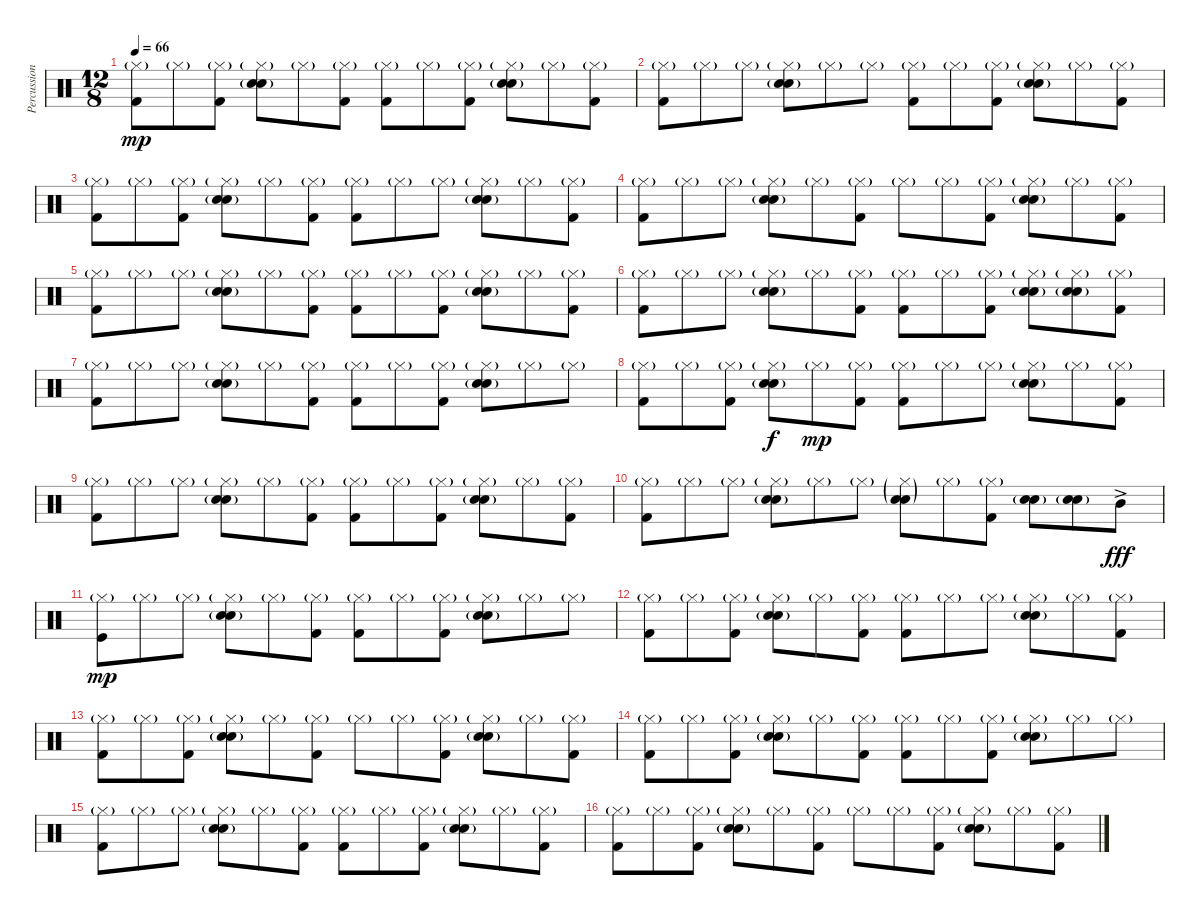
\track ("Percussion" "Percussion") {instrument percussion}
\staff {score}
\articulation defaults
\ts (12 8)
\tempo 66
\clef neutral
\ks c
("Hi-Hat (closed)"{g} "Kick (hit) 2").8{dy mp} "Hi-Hat (closed)"{g}.8 ("Hi-Hat (closed)"{g} "Kick (hit) 2").8 ("Hi-Hat (closed)"{g} "Snare (hit) 2" "Electric Snare (hit)"{g}).8 "Hi-Hat (closed)"{g}.8 ("Hi-Hat (closed)"{g} "Kick (hit) 2").8 ("Hi-Hat (closed)"{g} "Kick (hit) 2").8 "Hi-Hat (closed)"{g}.8 ("Hi-Hat (closed)"{g} "Kick (hit) 2").8 ("Hi-Hat (closed)"{g} "Snare (hit) 2" "Electric Snare (hit)"{g}).8 "Hi-Hat (closed)"{g}.8 ("Hi-Hat (closed)"{g} "Kick (hit) 2").8 |
("Hi-Hat (closed)"{g} "Kick (hit) 2").8 "Hi-Hat (closed)"{g}.8 "Hi-Hat (closed)"{g}.8 ("Hi-Hat (closed)"{g} "Snare (hit) 2" "Electric Snare (hit)"{g}).8 "Hi-Hat (closed)"{g}.8 "Hi-Hat (closed)"{g}.8 ("Hi-Hat (closed)"{g} "Kick (hit) 2").8 "Hi-Hat (closed)"{g}.8 ("Hi-Hat (closed)"{g} "Kick (hit) 2").8 ("Hi-Hat (closed)"{g} "Snare (hit) 2" "Electric Snare (hit)"{g}).8 "Hi-Hat (closed)"{g}.8 ("Hi-Hat (closed)"{g} "Kick (hit) 2").8 |
("Hi-Hat (closed)"{g} "Kick (hit) 2").8 "Hi-Hat (closed)"{g}.8 ("Hi-Hat (closed)"{g} "Kick (hit) 2").8 ("Hi-Hat (closed)"{g} "Snare (hit) 2" "Electric Snare (hit)"{g}).8 "Hi-Hat (closed)"{g}.8 ("Hi-Hat (closed)"{g} "Kick (hit) 2").8 ("Hi-Hat (closed)"{g} "Kick (hit) 2").8 "Hi-Hat (closed)"{g}.8 "Hi-Hat (closed)"{g}.8 ("Hi-Hat (closed)"{g} "Snare (hit) 2" "Electric Snare (hit)"{g}).8 "Hi-Hat (closed)"{g}.8 ("Hi-Hat (closed)"{g} "Kick (hit) 2").8 |
("Hi-Hat (closed)"{g} "Kick (hit) 2").8 "Hi-Hat (closed)"{g}.8 "Hi-Hat (closed)"{g}.8 ("Hi-Hat (closed)"{g} "Snare (hit) 2" "Electric Snare (hit)"{g}).8 "Hi-Hat (closed)"{g}.8 ("Hi-Hat (closed)"{g} "Kick (hit) 2").8 "Hi-Hat (closed)"{g}.8 "Hi-Hat (closed)"{g}.8 ("Hi-Hat (closed)"{g} "Kick (hit) 2").8 ("Hi-Hat (closed)"{g} "Snare (hit) 2" "Electric Snare (hit)"{g}).8 "Hi-Hat (closed)"{g}.8 ("Hi-Hat (closed)"{g} "Kick (hit) 2").8 |
("Hi-Hat (closed)"{g} "Kick (hit) 2").8 "Hi-Hat (closed)"{g}.8 "Hi-Hat (closed)"{g}.8 ("Hi-Hat (closed)"{g} "Snare (hit) 2" "Electric Snare (hit)"{g}).8 "Hi-Hat (closed)"{g}.8 ("Hi-Hat (closed)"{g} "Kick (hit) 2").8 ("Hi-Hat (closed)"{g} "Kick (hit) 2").8 "Hi-Hat (closed)"{g}.8 ("Hi-Hat (closed)"{g} "Kick (hit) 2").8 ("Hi-Hat (closed)"{g} "Snare (hit) 2" "Electric Snare (hit)"{g}).8 "Hi-Hat (closed)"{g}.8 ("Hi-Hat (closed)"{g} "Kick (hit) 2").8 |
("Hi-Hat (closed)"{g} "Kick (hit) 2").8 "Hi-Hat (closed)"{g}.8 "Hi-Hat (closed)"{g}.8 ("Hi-Hat (closed)"{g} "Snare (hit) 2" "Electric Snare (hit)"{g}).8 "Hi-Hat (closed)"{g}.8 ("Hi-Hat (closed)"{g} "Kick (hit) 2").8 ("Hi-Hat (closed)"{g} "Kick (hit) 2").8 "Hi-Hat (closed)"{g}.8 ("Hi-Hat (closed)"{g} "Kick (hit) 2").8 ("Hi-Hat (closed)"{g} "Snare (hit) 2" "Electric Snare (hit)"{g}).8 ("Hi-Hat (closed)"{g} "Snare (hit) 2" "Electric Snare (hit)"{g}).8 ("Hi-Hat (closed)"{g} "Kick (hit) 2").8 |
("Hi-Hat (closed)"{g} "Kick (hit) 2").8 "Hi-Hat (closed)"{g}.8 "Hi-Hat (closed)"{g}.8 ("Hi-Hat (closed)"{g} "Snare (hit) 2" "Electric Snare (hit)"{g}).8 "Hi-Hat (closed)"{g}.8 ("Hi-Hat (closed)"{g} "Kick (hit) 2").8 ("Hi-Hat (closed)"{g} "Kick (hit) 2").8 "Hi-Hat (closed)"{g}.8 ("Hi-Hat (closed)"{g} "Kick (hit) 2").8 ("Hi-Hat (closed)"{g} "Snare (hit) 2" "Electric Snare (hit)"{g}).8 "Hi-Hat (closed)"{g}.8 "Hi-Hat (closed)"{g}.8 |
("Hi-Hat (closed)"{g} "Kick (hit) 2").8 "Hi-Hat (closed)"{g}.8 ("Hi-Hat (closed)"{g} "Kick (hit) 2").8 ("Hi-Hat (closed)"{g} "Snare (hit) 2" "Electric Snare (hit)"{g}).8{dy f} "Hi-Hat (closed)"{g}.8{dy mp} ("Hi-Hat (closed)"{g} "Kick (hit) 2").8 ("Hi-Hat (closed)"{g} "Kick (hit) 2").8 "Hi-Hat (closed)"{g}.8 "Hi-Hat (closed)"{g}.8 ("Hi-Hat (closed)"{g} "Snare (hit) 2" "Electric Snare (hit)"{g}).8 "Hi-Hat (closed)"{g}.8 ("Hi-Hat (closed)"{g} "Kick (hit) 2").8 |
("Hi-Hat (closed)"{g} "Kick (hit) 2").8 "Hi-Hat (closed)"{g}.8 "Hi-Hat (closed)"{g}.8 ("Hi-Hat (closed)"{g} "Snare (hit) 2" "Electric Snare (hit)"{g}).8 "Hi-Hat (closed)"{g}.8 ("Hi-Hat (closed)"{g} "Kick (hit) 2").8 ("Hi-Hat (closed)"{g} "Kick (hit) 2").8 "Hi-Hat (closed)"{g}.8 ("Hi-Hat (closed)"{g} "Kick (hit) 2").8 ("Hi-Hat (closed)"{g} "Snare (hit) 2" "Electric Snare (hit)"{g}).8 "Hi-Hat (closed)"{g}.8 ("Hi-Hat (closed)"{g} "Kick (hit) 2").8 |
("Hi-Hat (closed)"{g} "Kick (hit) 2").8 "Hi-Hat (closed)"{g}.8 "Hi-Hat (closed)"{g}.8 ("Hi-Hat (closed)"{g} "Snare (hit) 2" "Electric Snare (hit)"{g}).8 "Hi-Hat (closed)"{g}.8 "Hi-Hat (closed)"{g}.8 ("Hi-Hat (closed)"{g} "Snare (hit) 2"{g} "Electric Snare (hit)"{g}).8 "Hi-Hat (closed)"{g}.8 ("Hi-Hat (closed)"{g} "Kick (hit) 2").8 ("Snare (hit) 2" "Electric Snare (hit)"{g}).8 ("Snare (hit) 2" "Electric Snare (hit)"{g}).8 "Mid Tom (hit)"{ac}.8{dy fff} |
("Hi-Hat (closed)"{g} "Kick (hit)").8{dy mp} "Hi-Hat (closed)"{g}.8 "Hi-Hat (closed)"{g}.8 ("Hi-Hat (closed)"{g} "Snare (hit) 2" "Electric Snare (hit)"{g}).8 "Hi-Hat (closed)"{g}.8 ("Hi-Hat (closed)"{g} "Kick (hit) 2").8 ("Hi-Hat (closed)"{g} "Kick (hit) 2").8 "Hi-Hat (closed)"{g}.8 ("Hi-Hat (closed)"{g} "Kick (hit) 2").8 ("Hi-Hat (closed)"{g} "Snare (hit) 2" "Electric Snare (hit)"{g}).8 "Hi-Hat (closed)"{g}.8 "Hi-Hat (closed)"{g}.8 |
("Hi-Hat (closed)"{g} "Kick (hit) 2").8 "Hi-Hat (closed)"{g}.8 ("Hi-Hat (closed)"{g} "Kick (hit) 2").8 ("Hi-Hat (closed)"{g} "Snare (hit) 2" "Electric Snare (hit)"{g}).8 "Hi-Hat (closed)"{g}.8 ("Hi-Hat (closed)"{g} "Kick (hit) 2").8 ("Hi-Hat (closed)"{g} "Kick (hit) 2").8 "Hi-Hat (closed)"{g}.8 "Hi-Hat (closed)"{g}.8 ("Hi-Hat (closed)"{g} "Snare (hit) 2" "Electric Snare (hit)"{g}).8 "Hi-Hat (closed)"{g}.8 ("Hi-Hat (closed)"{g} "Kick (hit) 2").8 |
("Hi-Hat (closed)"{g} "Kick (hit) 2").8 "Hi-Hat (closed)"{g}.8 ("Hi-Hat (closed)"{g} "Kick (hit) 2").8 ("Hi-Hat (closed)"{g} "Snare (hit) 2" "Electric Snare (hit)"{g}).8 "Hi-Hat (closed)"{g}.8 ("Hi-Hat (closed)"{g} "Kick (hit) 2").8 "Hi-Hat (closed)"{g}.8 "Hi-Hat (closed)"{g}.8 ("Hi-Hat (closed)"{g} "Kick (hit) 2").8 ("Hi-Hat (closed)"{g} "Snare (hit) 2" "Electric Snare (hit)"{g}).8 "Hi-Hat (closed)"{g}.8 ("Hi-Hat (closed)"{g} "Kick (hit) 2").8 |
("Hi-Hat (closed)"{g} "Kick (hit) 2").8 "Hi-Hat (closed)"{g}.8 ("Hi-Hat (closed)"{g} "Kick (hit) 2").8 ("Hi-Hat (closed)"{g} "Snare (hit) 2" "Electric Snare (hit)"{g}).8 "Hi-Hat (closed)"{g}.8 ("Hi-Hat (closed)"{g} "Kick (hit) 2").8 ("Hi-Hat (closed)"{g} "Kick (hit) 2").8 "Hi-Hat (closed)"{g}.8 ("Hi-Hat (closed)"{g} "Kick (hit) 2").8 ("Hi-Hat (closed)"{g} "Snare (hit) 2" "Electric Snare (hit)"{g}).8 "Hi-Hat (closed)"{g}.8 "Hi-Hat (closed)"{g}.8 |
("Hi-Hat (closed)"{g} "Kick (hit) 2").8 "Hi-Hat (closed)"{g}.8 "Hi-Hat (closed)"{g}.8 ("Hi-Hat (closed)"{g} "Snare (hit) 2" "Electric Snare (hit)"{g}).8 "Hi-Hat (closed)"{g}.8 ("Hi-Hat (closed)"{g} "Kick (hit) 2").8 ("Hi-Hat (closed)"{g} "Kick (hit) 2").8 "Hi-Hat (closed)"{g}.8 ("Hi-Hat (closed)"{g} "Kick (hit) 2").8 ("Hi-Hat (closed)"{g} "Snare (hit) 2" "Electric Snare (hit)"{g}).8 "Hi-Hat (closed)"{g}.8 ("Hi-Hat (closed)"{g} "Kick (hit) 2").8 |
("Hi-Hat (closed)"{g} "Kick (hit) 2").8 "Hi-Hat (closed)"{g}.8 ("Hi-Hat (closed)"{g} "Kick (hit) 2").8 ("Hi-Hat (closed)"{g} "Snare (hit) 2" "Electric Snare (hit)"{g}).8 "Hi-Hat (closed)"{g}.8 ("Hi-Hat (closed)"{g} "Kick (hit) 2").8 "Hi-Hat (closed)"{g}.8 "Hi-Hat (closed)"{g}.8 ("Hi-Hat (closed)"{g} "Kick (hit) 2").8 ("Hi-Hat (closed)"{g} "Snare (hit) 2" "Electric Snare (hit)"{g}).8 "Hi-Hat (closed)"{g}.8 ("Hi-Hat (closed)"{g} "Kick (hit) 2").8
